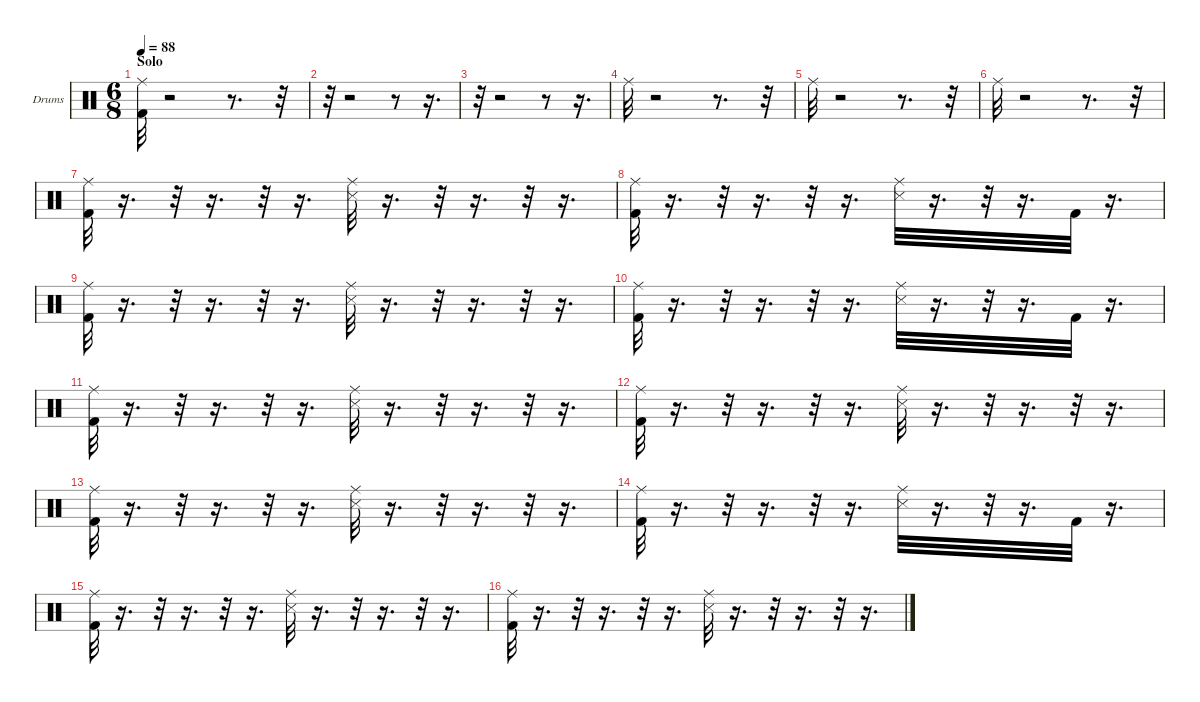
\hideDynamics
\bracketExtendMode nobrackets
\firstSystemTrackNameOrientation horizontal
\otherSystemsTrackNameOrientation horizontal
\track ("Drumkit" "Drums") {instrument percussion}
\staff {score}
\articulation defaults
\ts (6 8)
\section ("" "Solo")
\tempo 88
\clef neutral
\ks c
("Kick (hit) 2" "Ride (middle)").32{dy fff} r.2 r.8{d} r.32 |
r.32 r.2 r.8 r.16{d} |
r.32 r.2 r.8 r.16{d} |
"Ride (middle)".32{dy ff} r.2 r.8{d} r.32 |
"Ride (middle)".32 r.2 r.8{d} r.32 |
"Ride (middle)".32 r.2 r.8{d} r.32 |
("Kick (hit) 2" "Ride (middle)").32{dy fff} r.16{d} r.32 r.16{d} r.32 r.16{d} ("Snare (side stick) 3" "Ride (middle)").32{dy ff} r.16{d} r.32 r.16{d} r.32 r.16{d} |
("Kick (hit) 2" "Ride (middle)").32{dy fff} r.16{d} r.32 r.16{d} r.32 r.16{d} ("Snare (side stick) 3" "Ride (middle)").32{dy ff} r.16{d} r.32 r.16{d} "Kick (hit) 2".32{dy f} r.16{d} |
("Kick (hit) 2" "Ride (middle)").32{dy fff} r.16{d} r.32 r.16{d} r.32 r.16{d} ("Snare (side stick) 3" "Ride (middle)").32{dy ff} r.16{d} r.32 r.16{d} r.32 r.16{d} |
("Kick (hit) 2" "Ride (middle)").32{dy fff} r.16{d} r.32 r.16{d} r.32 r.16{d} ("Snare (side stick) 3" "Ride (middle)").32{dy ff} r.16{d} r.32 r.16{d} "Kick (hit) 2".32{dy f} r.16{d} |
("Kick (hit) 2" "Ride (middle)").32{dy fff} r.16{d} r.32 r.16{d} r.32 r.16{d} ("Snare (side stick) 3" "Ride (middle)").32{dy ff} r.16{d} r.32 r.16{d} r.32 r.16{d} |
("Kick (hit) 2" "Ride (middle)").32{dy fff} r.16{d} r.32 r.16{d} r.32 r.16{d} ("Snare (side stick) 3" "Ride (middle)").32{dy ff} r.16{d} r.32 r.16{d} r.32 r.16{d} |
("Kick (hit) 2" "Ride (middle)").32{dy fff} r.16{d} r.32 r.16{d} r.32 r.16{d} ("Snare (side stick) 3" "Ride (middle)").32{dy ff} r.16{d} r.32 r.16{d} r.32 r.16{d} |
("Kick (hit) 2" "Ride (middle)").32{dy fff} r.16{d} r.32 r.16{d} r.32 r.16{d} ("Snare (side stick) 3" "Ride (middle)").32{dy ff} r.16{d} r.32 r.16{d} "Kick (hit) 2".32{dy f} r.16{d} |
("Kick (hit) 2" "Ride (middle)").32{dy fff} r.16{d} r.32 r.16{d} r.32 r.16{d} ("Snare (side stick) 3" "Ride (middle)").32{dy ff} r.16{d} r.32 r.16{d} r.32 r.16{d} |
("Kick (hit) 2" "Ride (middle)").32{dy fff} r.16{d} r.32 r.16{d} r.32 r.16{d} ("Snare (side stick) 3" "Ride (middle)").32{dy ff} r.16{d} r.32 r.16{d} r.32 r.16{d}
